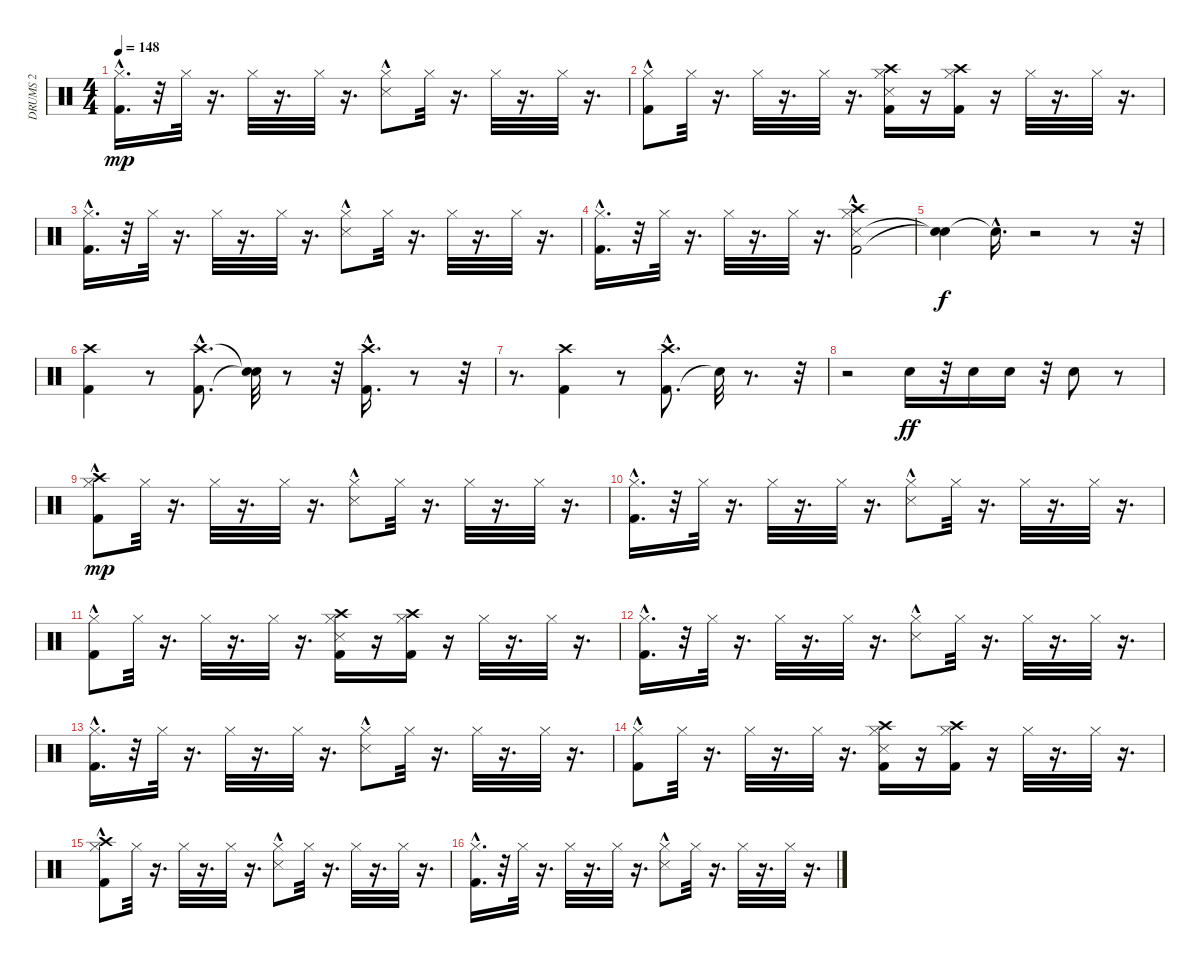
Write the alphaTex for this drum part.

\track ("DRUMS 2" "DRUMS 2") {instrument percussion}
\staff {score}
\articulation defaults
\ts (4 4)
\tempo 148
\clef neutral
\ks c
("Kick (hit) 2"{hac} "Hi-Hat (closed)").16{d dy mp} r.32 "Hi-Hat (closed)".32 r.16{d} "Hi-Hat (closed)".32 r.16{d} "Hi-Hat (closed)".32 r.16{d} ("Snare (side stick) 3"{hac} "Hi-Hat (closed)").8 "Hi-Hat (closed)".32 r.16{d} "Hi-Hat (closed)".32 r.16{d} "Hi-Hat (closed)".32 r.16{d} |
("Kick (hit) 2"{hac} "Hi-Hat (closed)").8 "Hi-Hat (closed)".32 r.16{d} "Hi-Hat (closed)".32 r.16{d} "Hi-Hat (closed)".32 r.16{d} ("Snare (side stick) 3" "Kick (hit) 2" "Hi-Hat (closed)" "Crash high (hit)").16 r.16 ("Kick (hit) 2" "Hi-Hat (closed)" "Crash high (hit)").16 r.16 "Hi-Hat (closed)".32 r.16{d} "Hi-Hat (closed)".32 r.16{d} |
("Kick (hit) 2"{hac} "Hi-Hat (closed)").16{d} r.32 "Hi-Hat (closed)".32 r.16{d} "Hi-Hat (closed)".32 r.16{d} "Hi-Hat (closed)".32 r.16{d} ("Snare (side stick) 3"{hac} "Hi-Hat (closed)").8 "Hi-Hat (closed)".32 r.16{d} "Hi-Hat (closed)".32 r.16{d} "Hi-Hat (closed)".32 r.16{d} |
("Kick (hit) 2"{hac} "Hi-Hat (closed)").16{d} r.32 "Hi-Hat (closed)".32 r.16{d} "Hi-Hat (closed)".32 r.16{d} "Hi-Hat (closed)".32 r.16{d} ("Snare (side stick) 3"{hac} "Kick (hit) 2" "Hi-Hat (closed)" "Crash high (hit)").2 |
("Snare (hit)"{t} "Snare (hit)"{t}).4{dy f} "Snare (hit)"{hac t}.16{d} r.2 r.8 r.32 |
("Kick (hit) 2" "Crash high (hit)").4 r.8 ("Kick (hit) 2"{hac} "Crash high (hit)"{hac}).8{d} ("Snare (hit)"{t} "Snare (hit)"{t}).32 r.8 r.32 ("Kick (hit) 2"{hac} "Crash high (hit)"{hac}).16{d} r.8 r.32 |
r.8{d} ("Kick (hit) 2" "Crash high (hit)").4 r.8 ("Kick (hit) 2"{hac} "Crash high (hit)").8{d} "Snare (hit)"{t}.32 r.8{d} r.32 |
r.2 "Snare (hit) 2".16{dy ff} r.32 "Snare (hit) 2".16 "Snare (hit) 2".16 r.32 "Snare (hit) 2".8 r.8 |
("Kick (hit) 2"{hac} "Hi-Hat (closed)" "Crash high (hit)"{hac}).8{dy mp} "Hi-Hat (closed)".32 r.16{d} "Hi-Hat (closed)".32 r.16{d} "Hi-Hat (closed)".32 r.16{d} ("Snare (side stick) 3"{hac} "Hi-Hat (closed)").8 "Hi-Hat (closed)".32 r.16{d} "Hi-Hat (closed)".32 r.16{d} "Hi-Hat (closed)".32 r.16{d} |
("Kick (hit) 2"{hac} "Hi-Hat (closed)").16{d} r.32 "Hi-Hat (closed)".32 r.16{d} "Hi-Hat (closed)".32 r.16{d} "Hi-Hat (closed)".32 r.16{d} ("Snare (side stick) 3"{hac} "Hi-Hat (closed)").8 "Hi-Hat (closed)".32 r.16{d} "Hi-Hat (closed)".32 r.16{d} "Hi-Hat (closed)".32 r.16{d} |
("Kick (hit) 2"{hac} "Hi-Hat (closed)").8 "Hi-Hat (closed)".32 r.16{d} "Hi-Hat (closed)".32 r.16{d} "Hi-Hat (closed)".32 r.16{d} ("Snare (side stick) 3" "Kick (hit) 2" "Hi-Hat (closed)" "Crash high (hit)").16 r.16 ("Kick (hit) 2" "Hi-Hat (closed)" "Crash high (hit)").16 r.16 "Hi-Hat (closed)".32 r.16{d} "Hi-Hat (closed)".32 r.16{d} |
("Kick (hit) 2"{hac} "Hi-Hat (closed)").16{d} r.32 "Hi-Hat (closed)".32 r.16{d} "Hi-Hat (closed)".32 r.16{d} "Hi-Hat (closed)".32 r.16{d} ("Snare (side stick) 3"{hac} "Hi-Hat (closed)").8 "Hi-Hat (closed)".32 r.16{d} "Hi-Hat (closed)".32 r.16{d} "Hi-Hat (closed)".32 r.16{d} |
("Kick (hit) 2"{hac} "Hi-Hat (closed)").16{d} r.32 "Hi-Hat (closed)".32 r.16{d} "Hi-Hat (closed)".32 r.16{d} "Hi-Hat (closed)".32 r.16{d} ("Snare (side stick) 3"{hac} "Hi-Hat (closed)").8 "Hi-Hat (closed)".32 r.16{d} "Hi-Hat (closed)".32 r.16{d} "Hi-Hat (closed)".32 r.16{d} |
("Kick (hit) 2"{hac} "Hi-Hat (closed)").8 "Hi-Hat (closed)".32 r.16{d} "Hi-Hat (closed)".32 r.16{d} "Hi-Hat (closed)".32 r.16{d} ("Snare (side stick) 3" "Kick (hit) 2" "Hi-Hat (closed)" "Crash high (hit)").16 r.16 ("Kick (hit) 2" "Hi-Hat (closed)" "Crash high (hit)").16 r.16 "Hi-Hat (closed)".32 r.16{d} "Hi-Hat (closed)".32 r.16{d} |
("Kick (hit) 2"{hac} "Hi-Hat (closed)" "Crash high (hit)"{hac}).8 "Hi-Hat (closed)".32 r.16{d} "Hi-Hat (closed)".32 r.16{d} "Hi-Hat (closed)".32 r.16{d} ("Snare (side stick) 3"{hac} "Hi-Hat (closed)").8 "Hi-Hat (closed)".32 r.16{d} "Hi-Hat (closed)".32 r.16{d} "Hi-Hat (closed)".32 r.16{d} |
("Kick (hit) 2"{hac} "Hi-Hat (closed)").16{d} r.32 "Hi-Hat (closed)".32 r.16{d} "Hi-Hat (closed)".32 r.16{d} "Hi-Hat (closed)".32 r.16{d} ("Snare (side stick) 3"{hac} "Hi-Hat (closed)").8 "Hi-Hat (closed)".32 r.16{d} "Hi-Hat (closed)".32 r.16{d} "Hi-Hat (closed)".32 r.16{d}
